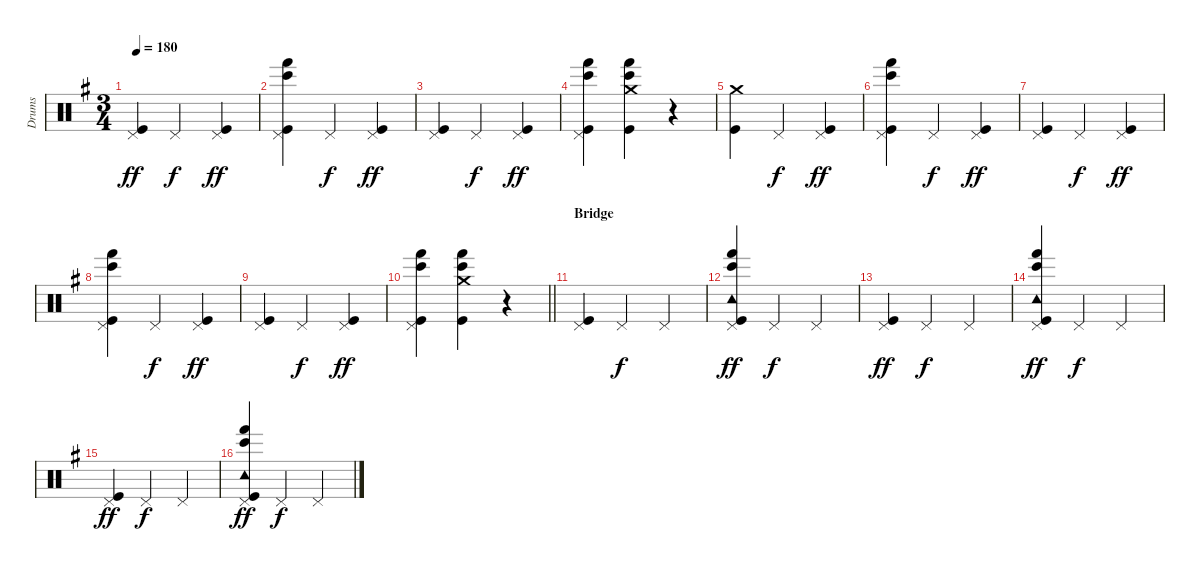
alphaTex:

\track ("Drums" "Drums") {instrument percussion bank 24}
\staff {score}
\articulation defaults
\ts (3 4)
\tempo 180
\clef neutral
\ks eminor
("Pedal Hi-Hat (hit)" "Kick (hit)").4{dy ff} "Pedal Hi-Hat (hit)".4{dy f} ("Pedal Hi-Hat (hit)" "Kick (hit)").4{dy ff} |
("Pedal Hi-Hat (hit)" "Bongo High (hit)" "Hand (hit)" "Kick (hit)").4 "Pedal Hi-Hat (hit)".4{dy f} ("Pedal Hi-Hat (hit)" "Kick (hit)").4{dy ff} |
("Pedal Hi-Hat (hit)" "Kick (hit)").4 "Pedal Hi-Hat (hit)".4{dy f} ("Pedal Hi-Hat (hit)" "Kick (hit)").4{dy ff} |
("Pedal Hi-Hat (hit)" "Bongo High (hit)" "Hand (hit)" "Kick (hit)").4 ("Crash medium (hit)" "Bongo High (hit)" "Hand (hit)" "Kick (hit)").4 r.4 |
("Crash medium (hit)" "Kick (hit)").4 "Pedal Hi-Hat (hit)".4{dy f} ("Pedal Hi-Hat (hit)" "Kick (hit)").4{dy ff} |
("Pedal Hi-Hat (hit)" "Bongo High (hit)" "Hand (hit)" "Kick (hit)").4 "Pedal Hi-Hat (hit)".4{dy f} ("Pedal Hi-Hat (hit)" "Kick (hit)").4{dy ff} |
("Pedal Hi-Hat (hit)" "Kick (hit)").4 "Pedal Hi-Hat (hit)".4{dy f} ("Pedal Hi-Hat (hit)" "Kick (hit)").4{dy ff} |
("Pedal Hi-Hat (hit)" "Bongo High (hit)" "Hand (hit)" "Kick (hit)").4 "Pedal Hi-Hat (hit)".4{dy f} ("Pedal Hi-Hat (hit)" "Kick (hit)").4{dy ff} |
("Pedal Hi-Hat (hit)" "Kick (hit)").4 "Pedal Hi-Hat (hit)".4{dy f} ("Pedal Hi-Hat (hit)" "Kick (hit)").4{dy ff} |
\barLineRight lightlight
("Pedal Hi-Hat (hit)" "Bongo High (hit)" "Hand (hit)" "Kick (hit)").4 ("Crash medium (hit)" "Bongo High (hit)" "Hand (hit)" "Kick (hit)").4 r.4 |
\section ("" "Bridge")
("Pedal Hi-Hat (hit)" "Kick (hit)").4 "Pedal Hi-Hat (hit)".4{dy f} "Pedal Hi-Hat (hit)".4 |
("Pedal Hi-Hat (hit)" "Tambourine (hit)" "Bongo High (hit)" "Hand (hit)" "Kick (hit)").4{dy ff} "Pedal Hi-Hat (hit)".4{dy f} "Pedal Hi-Hat (hit)".4 |
("Pedal Hi-Hat (hit)" "Kick (hit)").4{dy ff} "Pedal Hi-Hat (hit)".4{dy f} "Pedal Hi-Hat (hit)".4 |
("Pedal Hi-Hat (hit)" "Tambourine (hit)" "Bongo High (hit)" "Hand (hit)" "Kick (hit)").4{dy ff} "Pedal Hi-Hat (hit)".4{dy f} "Pedal Hi-Hat (hit)".4 |
("Pedal Hi-Hat (hit)" "Kick (hit)").4{dy ff} "Pedal Hi-Hat (hit)".4{dy f} "Pedal Hi-Hat (hit)".4 |
("Pedal Hi-Hat (hit)" "Tambourine (hit)" "Bongo High (hit)" "Hand (hit)" "Kick (hit)").4{dy ff} "Pedal Hi-Hat (hit)".4{dy f} "Pedal Hi-Hat (hit)".4
